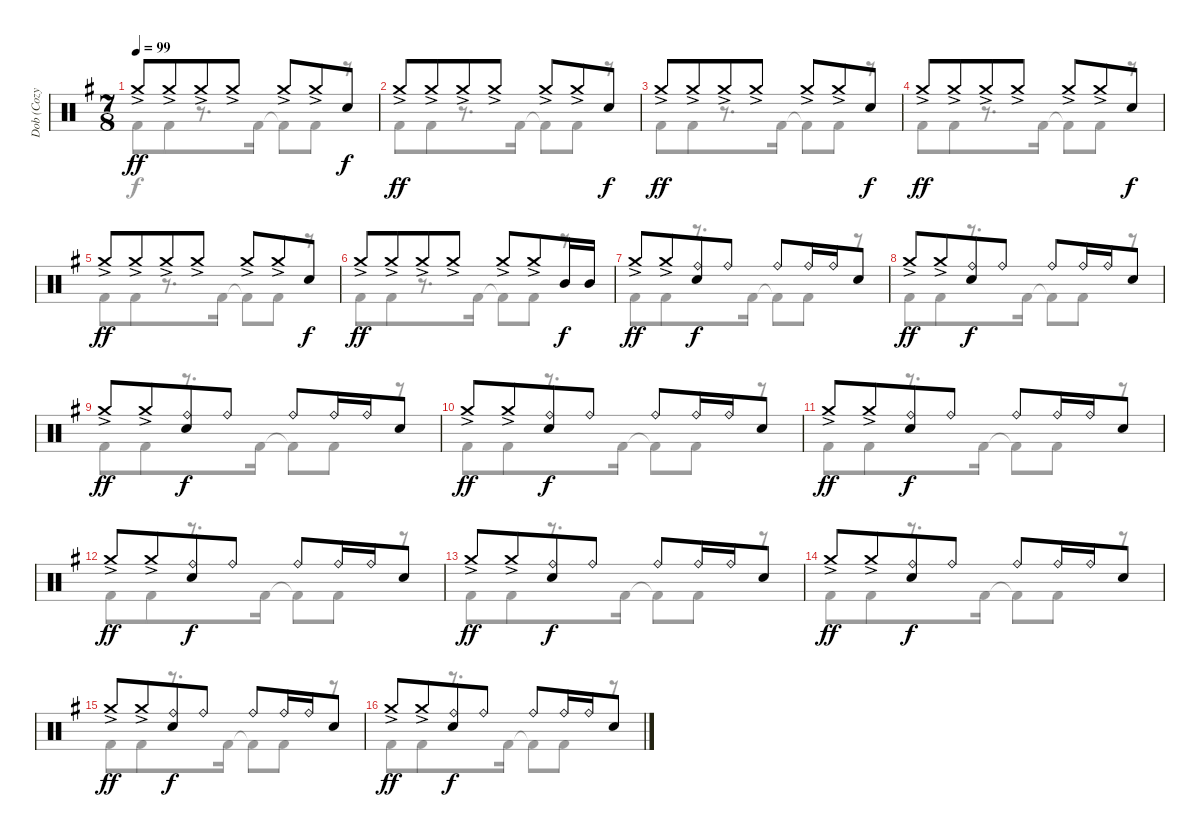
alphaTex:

\track ("Dob (Cozy Powell)" "Dob (Cozy ") {instrument percussion}
\staff {score}
\articulation defaults
\voice
\ts (7 8)
\tempo 99
\clef neutral
\ks g "Crash medium (hit)"{ac}.8{dy ff} "Crash medium (hit)"{ac}.8 "Crash medium (hit)"{ac}.8{beam merge} "Crash medium (hit)"{ac}.8{beam split} "Crash medium (hit)"{ac}.8{beam merge} "Crash medium (hit)"{ac}.8 "Electric Snare (hit)".8{dy f}
|
"Crash medium (hit)"{ac}.8{dy ff} "Crash medium (hit)"{ac}.8 "Crash medium (hit)"{ac}.8{beam merge} "Crash medium (hit)"{ac}.8{beam split} "Crash medium (hit)"{ac}.8{beam merge} "Crash medium (hit)"{ac}.8 "Electric Snare (hit)".8{dy f} |
"Crash medium (hit)"{ac}.8{dy ff} "Crash medium (hit)"{ac}.8 "Crash medium (hit)"{ac}.8{beam merge} "Crash medium (hit)"{ac}.8{beam split} "Crash medium (hit)"{ac}.8{beam merge} "Crash medium (hit)"{ac}.8 "Electric Snare (hit)".8{dy f} |
"Crash medium (hit)"{ac}.8{dy ff} "Crash medium (hit)"{ac}.8 "Crash medium (hit)"{ac}.8{beam merge} "Crash medium (hit)"{ac}.8{beam split} "Crash medium (hit)"{ac}.8{beam merge} "Crash medium (hit)"{ac}.8 "Electric Snare (hit)".8{dy f} |
"Crash medium (hit)"{ac}.8{dy ff} "Crash medium (hit)"{ac}.8 "Crash medium (hit)"{ac}.8{beam merge} "Crash medium (hit)"{ac}.8{beam split} "Crash medium (hit)"{ac}.8{beam merge} "Crash medium (hit)"{ac}.8 "Electric Snare (hit)".8{dy f} |
"Crash medium (hit)"{ac}.8{dy ff} "Crash medium (hit)"{ac}.8 "Crash medium (hit)"{ac}.8{beam merge} "Crash medium (hit)"{ac}.8{beam split} "Crash medium (hit)"{ac}.8{beam merge} "Crash medium (hit)"{ac}.8 "Mid Tom (hit)".16{dy f} "Mid Tom (hit)".16 |
"Crash medium (hit)"{ac}.8{dy ff beam merge} "Crash medium (hit)"{ac}.8{beam merge} ("Ride (bell)" "Electric Snare (hit)").8{dy f beam merge} "Ride (bell)".8{beam split} "Ride (bell)".8{beam merge} "Ride (bell)".16 "Ride (bell)".16 "Electric Snare (hit)".8 |
"Crash medium (hit)"{ac}.8{dy ff beam merge} "Crash medium (hit)"{ac}.8{beam merge} ("Ride (bell)" "Electric Snare (hit)").8{dy f beam merge} "Ride (bell)".8{beam split} "Ride (bell)".8{beam merge} "Ride (bell)".16 "Ride (bell)".16 "Electric Snare (hit)".8 |
"Crash medium (hit)"{ac}.8{dy ff beam merge} "Crash medium (hit)"{ac}.8{beam merge} ("Ride (bell)" "Electric Snare (hit)").8{dy f beam merge} "Ride (bell)".8{beam split} "Ride (bell)".8{beam merge} "Ride (bell)".16 "Ride (bell)".16 "Electric Snare (hit)".8 |
"Crash medium (hit)"{ac}.8{dy ff beam merge} "Crash medium (hit)"{ac}.8{beam merge} ("Ride (bell)" "Electric Snare (hit)").8{dy f beam merge} "Ride (bell)".8{beam split} "Ride (bell)".8{beam merge} "Ride (bell)".16 "Ride (bell)".16 "Electric Snare (hit)".8 |
"Crash medium (hit)"{ac}.8{dy ff beam merge} "Crash medium (hit)"{ac}.8{beam merge} ("Ride (bell)" "Electric Snare (hit)").8{dy f beam merge} "Ride (bell)".8{beam split} "Ride (bell)".8{beam merge} "Ride (bell)".16 "Ride (bell)".16 "Electric Snare (hit)".8 |
"Crash medium (hit)"{ac}.8{dy ff beam merge} "Crash medium (hit)"{ac}.8{beam merge} ("Ride (bell)" "Electric Snare (hit)").8{dy f beam merge} "Ride (bell)".8{beam split} "Ride (bell)".8{beam merge} "Ride (bell)".16 "Ride (bell)".16 "Electric Snare (hit)".8 |
"Crash medium (hit)"{ac}.8{dy ff beam merge} "Crash medium (hit)"{ac}.8{beam merge} ("Ride (bell)" "Electric Snare (hit)").8{dy f beam merge} "Ride (bell)".8{beam split} "Ride (bell)".8{beam merge} "Ride (bell)".16 "Ride (bell)".16 "Electric Snare (hit)".8 |
"Crash medium (hit)"{ac}.8{dy ff beam merge} "Crash medium (hit)"{ac}.8{beam merge} ("Ride (bell)" "Electric Snare (hit)").8{dy f beam merge} "Ride (bell)".8{beam split} "Ride (bell)".8{beam merge} "Ride (bell)".16 "Ride (bell)".16 "Electric Snare (hit)".8 |
"Crash medium (hit)"{ac}.8{dy ff beam merge} "Crash medium (hit)"{ac}.8{beam merge} ("Ride (bell)" "Electric Snare (hit)").8{dy f beam merge} "Ride (bell)".8{beam split} "Ride (bell)".8{beam merge} "Ride (bell)".16 "Ride (bell)".16 "Electric Snare (hit)".8 |
"Crash medium (hit)"{ac}.8{dy ff beam merge} "Crash medium (hit)"{ac}.8{beam merge} ("Ride (bell)" "Electric Snare (hit)").8{dy f beam merge} "Ride (bell)".8{beam split} "Ride (bell)".8{beam merge} "Ride (bell)".16 "Ride (bell)".16 "Electric Snare (hit)".8
\voice
\clef neutral
\ottava regular
\simile none
\ks g "Kick (hit) 2".8{dy f beam merge} "Kick (hit) 2".8
r.8{d} "Kick (hit) 2".16 "Kick (hit) 2"{t}.8{beam merge} "Kick (hit) 2".8 r.8 |
"Kick (hit) 2".8{beam merge} "Kick (hit) 2".8 r.8{d} "Kick (hit) 2".16 "Kick (hit) 2"{t}.8{beam merge} "Kick (hit) 2".8 r.8 |
"Kick (hit) 2".8{beam merge} "Kick (hit) 2".8 r.8{d} "Kick (hit) 2".16 "Kick (hit) 2"{t}.8{beam merge} "Kick (hit) 2".8 r.8 |
"Kick (hit) 2".8{beam merge} "Kick (hit) 2".8 r.8{d} "Kick (hit) 2".16 "Kick (hit) 2"{t}.8{beam merge} "Kick (hit) 2".8 r.8 |
"Kick (hit) 2".8{beam merge} "Kick (hit) 2".8 r.8{d} "Kick (hit) 2".16 "Kick (hit) 2"{t}.8{beam merge} "Kick (hit) 2".8 r.8 |
"Kick (hit) 2".8{beam merge} "Kick (hit) 2".8 r.8{d} "Kick (hit) 2".16 "Kick (hit) 2"{t}.8{beam merge} "Kick (hit) 2".8 r.8 |
"Kick (hit) 2".8{beam merge} "Kick (hit) 2".8 r.8{d} "Kick (hit) 2".16 "Kick (hit) 2"{t}.8{beam merge} "Kick (hit) 2".8 r.8 |
"Kick (hit) 2".8{beam merge} "Kick (hit) 2".8 r.8{d} "Kick (hit) 2".16 "Kick (hit) 2"{t}.8{beam merge} "Kick (hit) 2".8 r.8 |
"Kick (hit) 2".8{beam merge} "Kick (hit) 2".8 r.8{d} "Kick (hit) 2".16 "Kick (hit) 2"{t}.8{beam merge} "Kick (hit) 2".8 r.8 |
"Kick (hit) 2".8{beam merge} "Kick (hit) 2".8 r.8{d} "Kick (hit) 2".16 "Kick (hit) 2"{t}.8{beam merge} "Kick (hit) 2".8 r.8 |
"Kick (hit) 2".8{beam merge} "Kick (hit) 2".8 r.8{d} "Kick (hit) 2".16 "Kick (hit) 2"{t}.8{beam merge} "Kick (hit) 2".8 r.8 |
"Kick (hit) 2".8{beam merge} "Kick (hit) 2".8 r.8{d} "Kick (hit) 2".16 "Kick (hit) 2"{t}.8{beam merge} "Kick (hit) 2".8 r.8 |
"Kick (hit) 2".8{beam merge} "Kick (hit) 2".8 r.8{d} "Kick (hit) 2".16 "Kick (hit) 2"{t}.8{beam merge} "Kick (hit) 2".8 r.8 |
"Kick (hit) 2".8{beam merge} "Kick (hit) 2".8 r.8{d} "Kick (hit) 2".16 "Kick (hit) 2"{t}.8{beam merge} "Kick (hit) 2".8 r.8 |
"Kick (hit) 2".8{beam merge} "Kick (hit) 2".8 r.8{d} "Kick (hit) 2".16 "Kick (hit) 2"{t}.8{beam merge} "Kick (hit) 2".8 r.8 |
"Kick (hit) 2".8{beam merge} "Kick (hit) 2".8 r.8{d} "Kick (hit) 2".16 "Kick (hit) 2"{t}.8{beam merge} "Kick (hit) 2".8 r.8
